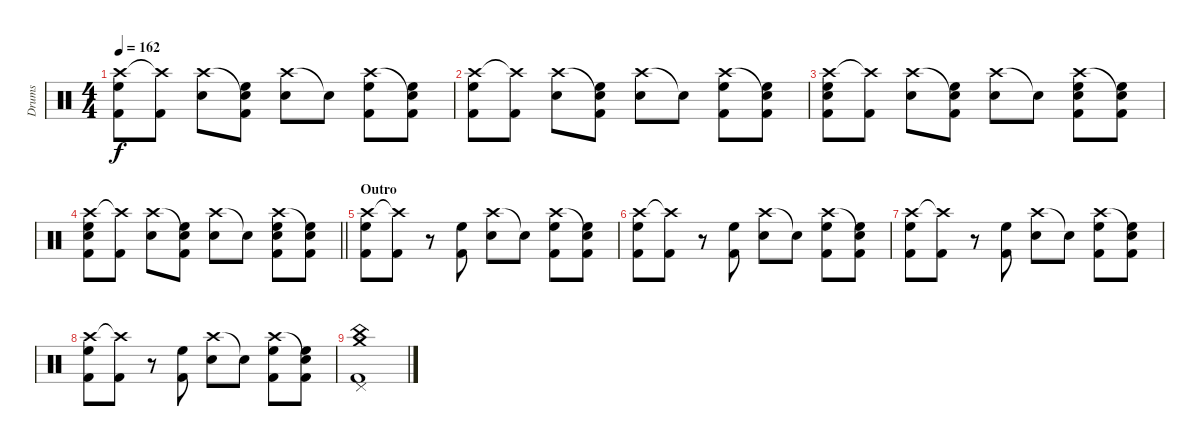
\track ("Drums" "Drums") {instrument percussion}
\staff {score}
\articulation defaults
\ts (4 4)
\tempo 162
\clef neutral
\ks c
("Crash high (hit)" "High Floor Tom (hit)" "Kick (hit) 2").8{dy f} ("Crash high (hit)"{t} "Kick (hit) 2").8 ("Crash high (hit)" "Snare (hit) 2").8 ("Snare (hit)"{t} "High Floor Tom (hit)" "Kick (hit) 2").8 ("Crash high (hit)" "Snare (hit) 2").8 "Snare (hit)"{t}.8 ("Crash high (hit)" "High Floor Tom (hit)" "Kick (hit) 2").8 ("Snare (hit)"{t} "High Floor Tom (hit)" "Kick (hit) 2").8 |
("Crash high (hit)" "High Floor Tom (hit)" "Kick (hit) 2").8 ("Crash high (hit)"{t} "Kick (hit) 2").8 ("Crash high (hit)" "Snare (hit) 2").8 ("Snare (hit)"{t} "High Floor Tom (hit)" "Kick (hit) 2").8 ("Crash high (hit)" "Snare (hit) 2").8 "Snare (hit)"{t}.8 ("Crash high (hit)" "High Floor Tom (hit)" "Kick (hit) 2").8 ("Snare (hit)"{t} "High Floor Tom (hit)" "Kick (hit) 2").8 |
("Crash high (hit)" "Snare (hit) 2" "High Floor Tom (hit)" "Kick (hit) 2").8 ("Crash high (hit)"{t} "Kick (hit) 2").8 ("Crash high (hit)" "Snare (hit) 2").8 ("Snare (hit)"{t} "High Floor Tom (hit)" "Kick (hit) 2").8 ("Crash high (hit)" "Snare (hit) 2").8 "Snare (hit)"{t}.8 ("Crash high (hit)" "Snare (hit) 2" "High Floor Tom (hit)" "Kick (hit) 2").8 ("Snare (hit)"{t} "High Floor Tom (hit)" "Kick (hit) 2").8 |
\barLineRight lightlight
("Crash high (hit)" "Snare (hit) 2" "High Floor Tom (hit)" "Kick (hit) 2").8 ("Crash high (hit)"{t} "Kick (hit) 2").8 ("Crash high (hit)" "Snare (hit) 2").8 ("Snare (hit)"{t} "High Floor Tom (hit)" "Kick (hit) 2").8 ("Crash high (hit)" "Snare (hit) 2").8 "Snare (hit)"{t}.8 ("Crash high (hit)" "Snare (hit) 2" "High Floor Tom (hit)" "Kick (hit) 2").8 ("Snare (hit)"{t} "High Floor Tom (hit)" "Kick (hit) 2").8 |
\section ("" "Outro")
("Crash high (hit)" "High Floor Tom (hit)" "Kick (hit) 2").8 ("Crash high (hit)"{t} "Kick (hit) 2").8 r.8 ("High Floor Tom (hit)" "Kick (hit) 2").8 ("Crash high (hit)" "Snare (hit) 2").8 "Snare (hit)"{t}.8 ("Crash high (hit)" "High Floor Tom (hit)" "Kick (hit) 2").8 ("Snare (hit)"{t} "High Floor Tom (hit)" "Kick (hit) 2").8 |
("Crash high (hit)" "High Floor Tom (hit)" "Kick (hit) 2").8 ("Crash high (hit)"{t} "Kick (hit) 2").8 r.8 ("High Floor Tom (hit)" "Kick (hit) 2").8 ("Crash high (hit)" "Snare (hit) 2").8 "Snare (hit)"{t}.8 ("Crash high (hit)" "High Floor Tom (hit)" "Kick (hit) 2").8 ("Snare (hit)"{t} "High Floor Tom (hit)" "Kick (hit) 2").8 |
("Crash high (hit)" "High Floor Tom (hit)" "Kick (hit) 2").8 ("Crash high (hit)"{t} "Kick (hit) 2").8 r.8 ("High Floor Tom (hit)" "Kick (hit) 2").8 ("Crash high (hit)" "Snare (hit) 2").8 "Snare (hit)"{t}.8 ("Crash high (hit)" "High Floor Tom (hit)" "Kick (hit) 2").8 ("Snare (hit)"{t} "High Floor Tom (hit)" "Kick (hit) 2").8 |
("Crash high (hit)" "High Floor Tom (hit)" "Kick (hit) 2").8 ("Crash high (hit)"{t} "Kick (hit) 2").8 r.8 ("High Floor Tom (hit)" "Kick (hit) 2").8 ("Crash high (hit)" "Snare (hit) 2").8 "Snare (hit)"{t}.8 ("Crash high (hit)" "High Floor Tom (hit)" "Kick (hit) 2").8 ("Snare (hit)"{t} "High Floor Tom (hit)" "Kick (hit) 2").8 |
("Crash medium (hit)" "China (hit)" "Pedal Hi-Hat (hit)" "Kick (hit) 2").1
